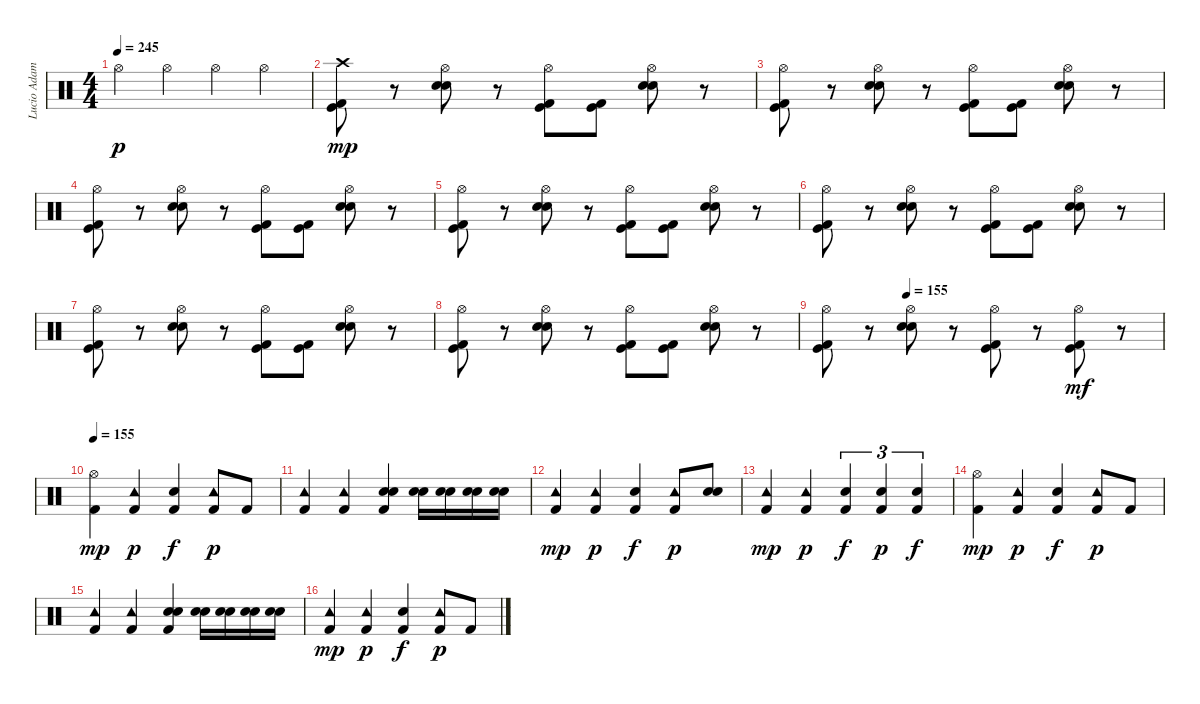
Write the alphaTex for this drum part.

\track ("Lucio Adamo (Bateria)" "Lucio Adam") {instrument percussion}
\staff {score}
\articulation defaults
\ts (4 4)
\tempo 245
\clef neutral
\ks c "Hi-Hat (open)".4{dy p} "Hi-Hat (open)".4 "Hi-Hat (open)".4 "Hi-Hat (open)".4
|
("Crash high (hit)" "Kick (hit)" "Kick (hit) 2").8{dy mp} r.8 ("Hi-Hat (open)" "Snare (hit) 2" "Electric Snare (hit)").8 r.8 ("Hi-Hat (open)" "Kick (hit) 2" "Kick (hit)").8 ("Kick (hit) 2" "Kick (hit)").8 ("Hi-Hat (open)" "Snare (hit) 2" "Electric Snare (hit)").8 r.8 |
("Hi-Hat (open)" "Kick (hit)" "Kick (hit) 2").8 r.8 ("Hi-Hat (open)" "Snare (hit) 2" "Electric Snare (hit)").8 r.8 ("Hi-Hat (open)" "Kick (hit) 2" "Kick (hit)").8 ("Kick (hit) 2" "Kick (hit)").8 ("Hi-Hat (open)" "Snare (hit) 2" "Electric Snare (hit)").8 r.8 |
("Hi-Hat (open)" "Kick (hit)" "Kick (hit) 2").8 r.8 ("Hi-Hat (open)" "Snare (hit) 2" "Electric Snare (hit)").8 r.8 ("Hi-Hat (open)" "Kick (hit) 2" "Kick (hit)").8 ("Kick (hit) 2" "Kick (hit)").8 ("Hi-Hat (open)" "Snare (hit) 2" "Electric Snare (hit)").8 r.8 |
("Hi-Hat (open)" "Kick (hit)" "Kick (hit) 2").8 r.8 ("Hi-Hat (open)" "Snare (hit) 2" "Electric Snare (hit)").8 r.8 ("Hi-Hat (open)" "Kick (hit) 2" "Kick (hit)").8 ("Kick (hit) 2" "Kick (hit)").8 ("Hi-Hat (open)" "Snare (hit) 2" "Electric Snare (hit)").8 r.8 |
("Hi-Hat (open)" "Kick (hit)" "Kick (hit) 2").8 r.8 ("Hi-Hat (open)" "Snare (hit) 2" "Electric Snare (hit)").8 r.8 ("Hi-Hat (open)" "Kick (hit) 2" "Kick (hit)").8 ("Kick (hit) 2" "Kick (hit)").8 ("Hi-Hat (open)" "Snare (hit) 2" "Electric Snare (hit)").8 r.8 |
("Hi-Hat (open)" "Kick (hit)" "Kick (hit) 2").8 r.8 ("Hi-Hat (open)" "Snare (hit) 2" "Electric Snare (hit)").8 r.8 ("Hi-Hat (open)" "Kick (hit) 2" "Kick (hit)").8 ("Kick (hit) 2" "Kick (hit)").8 ("Hi-Hat (open)" "Snare (hit) 2" "Electric Snare (hit)").8 r.8 |
("Hi-Hat (open)" "Kick (hit)" "Kick (hit) 2").8 r.8 ("Hi-Hat (open)" "Snare (hit) 2" "Electric Snare (hit)").8 r.8 ("Hi-Hat (open)" "Kick (hit) 2" "Kick (hit)").8 ("Kick (hit) 2" "Kick (hit)").8 ("Hi-Hat (open)" "Snare (hit) 2" "Electric Snare (hit)").8 r.8 |
\tempo (155 0.25)
("Hi-Hat (open)" "Kick (hit)" "Kick (hit) 2").8 r.8 ("Hi-Hat (open)" "Snare (hit) 2" "Electric Snare (hit)").8 r.8 ("Hi-Hat (open)" "Kick (hit)" "Kick (hit) 2").8 r.8 ("Hi-Hat (open)" "Kick (hit)" "Kick (hit) 2").8{dy mf} r.8 |
\tempo 155
("Kick (hit) 2" "Hi-Hat (open)").4{dy mp} ("Tambourine (hit)" "Kick (hit) 2").4{dy p} ("Kick (hit) 2" "Electric Snare (hit)").4{dy f} ("Tambourine (hit)" "Kick (hit) 2").8{dy p} "Kick (hit) 2".8 |
("Kick (hit) 2" "Tambourine (hit)").4 ("Tambourine (hit)" "Kick (hit) 2").4 ("Kick (hit) 2" "Electric Snare (hit)" "Snare (hit) 2").4 ("Electric Snare (hit)" "Snare (hit) 2").16 ("Electric Snare (hit)" "Snare (hit) 2").16 ("Electric Snare (hit)" "Snare (hit) 2").16 ("Electric Snare (hit)" "Snare (hit) 2").16 |
("Kick (hit) 2" "Tambourine (hit)").4{dy mp} ("Tambourine (hit)" "Kick (hit) 2").4{dy p} ("Kick (hit) 2" "Electric Snare (hit)").4{dy f} ("Tambourine (hit)" "Kick (hit) 2").8{dy p} ("Electric Snare (hit)" "Snare (hit) 2").8 |
("Kick (hit) 2" "Tambourine (hit)").4{dy mp} ("Tambourine (hit)" "Kick (hit) 2").4{dy p} ("Kick (hit) 2" "Electric Snare (hit)").4{tu (3 2) dy f} ("Electric Snare (hit)" "Kick (hit) 2").4{tu (3 2) dy p} ("Electric Snare (hit)" "Kick (hit) 2").4{tu (3 2) dy f} |
("Kick (hit) 2" "Hi-Hat (open)").4{dy mp} ("Tambourine (hit)" "Kick (hit) 2").4{dy p} ("Kick (hit) 2" "Electric Snare (hit)").4{dy f} ("Tambourine (hit)" "Kick (hit) 2").8{dy p} "Kick (hit) 2".8 |
("Kick (hit) 2" "Tambourine (hit)").4 ("Tambourine (hit)" "Kick (hit) 2").4 ("Kick (hit) 2" "Electric Snare (hit)" "Snare (hit) 2").4 ("Electric Snare (hit)" "Snare (hit) 2").16 ("Electric Snare (hit)" "Snare (hit) 2").16 ("Electric Snare (hit)" "Snare (hit) 2").16 ("Electric Snare (hit)" "Snare (hit) 2").16 |
("Kick (hit) 2" "Tambourine (hit)").4{dy mp} ("Tambourine (hit)" "Kick (hit) 2").4{dy p} ("Kick (hit) 2" "Electric Snare (hit)").4{dy f} ("Tambourine (hit)" "Kick (hit) 2").8{dy p} "Kick (hit) 2".8
